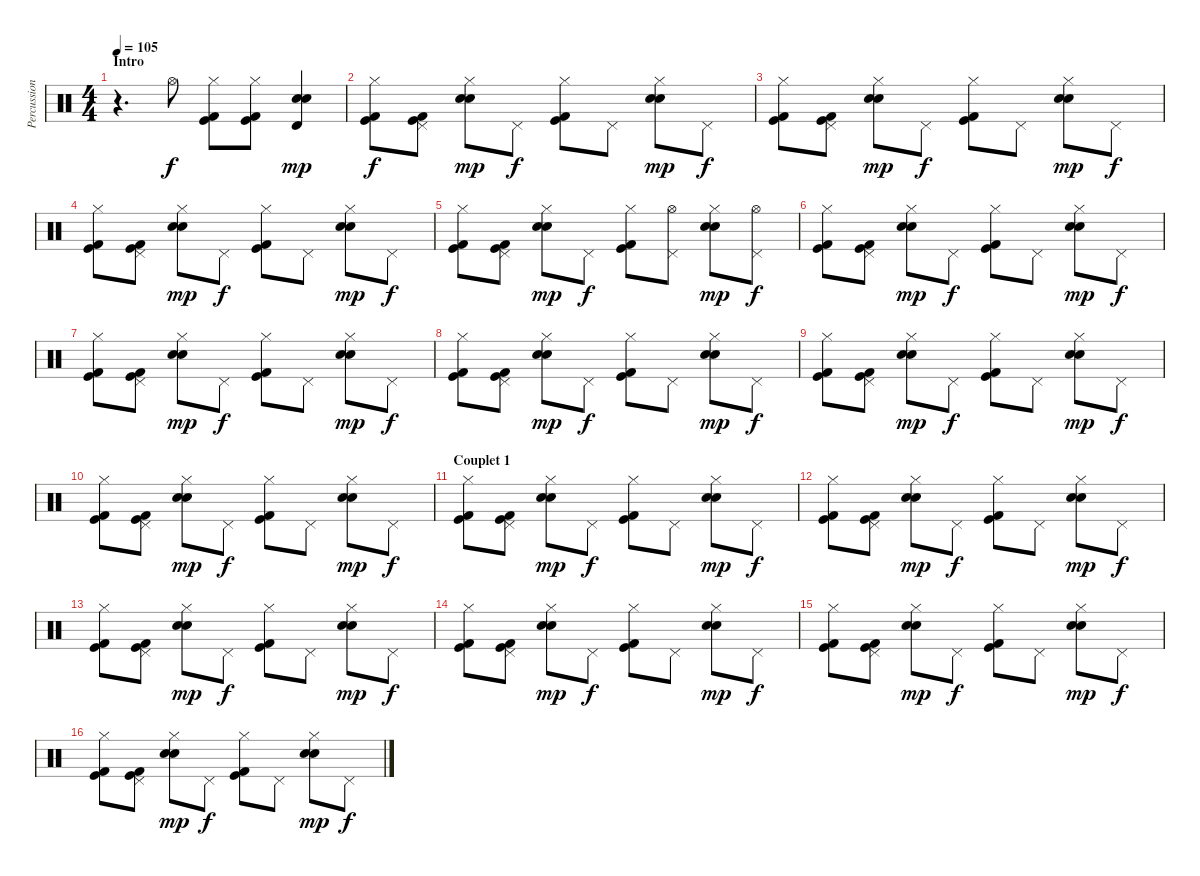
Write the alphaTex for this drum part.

\track ("Percussions" "Percussion") {instrument percussion}
\staff {score}
\articulation defaults
\ts (4 4)
\section ("" "Intro")
\tempo 105
\clef neutral
\ks c
r.4{d dy f} "Hi-Hat (open)".8 ("Hi-Hat (closed)" "Kick (hit) 2" "Kick (hit)").8 ("Hi-Hat (closed)" "Kick (hit) 2" "Kick (hit)").8 ("Electric Snare (hit)" "Snare (hit) 2" "Timbale high (hit)").4{dy mp} |
("Hi-Hat (closed)" "Kick (hit) 2" "Kick (hit)").8{dy f} ("Pedal Hi-Hat (hit)" "Kick (hit) 2" "Kick (hit)").8 ("Hi-Hat (closed)" "Electric Snare (hit)" "Snare (hit) 2").8{dy mp} "Pedal Hi-Hat (hit)".8{dy f} ("Hi-Hat (closed)" "Kick (hit) 2" "Kick (hit)").8 "Pedal Hi-Hat (hit)".8 ("Hi-Hat (closed)" "Electric Snare (hit)" "Snare (hit) 2").8{dy mp} "Pedal Hi-Hat (hit)".8{dy f} |
("Hi-Hat (closed)" "Kick (hit) 2" "Kick (hit)").8 ("Pedal Hi-Hat (hit)" "Kick (hit) 2" "Kick (hit)").8 ("Hi-Hat (closed)" "Electric Snare (hit)" "Snare (hit) 2").8{dy mp} "Pedal Hi-Hat (hit)".8{dy f} ("Hi-Hat (closed)" "Kick (hit) 2" "Kick (hit)").8 "Pedal Hi-Hat (hit)".8 ("Hi-Hat (closed)" "Electric Snare (hit)" "Snare (hit) 2").8{dy mp} "Pedal Hi-Hat (hit)".8{dy f} |
("Hi-Hat (closed)" "Kick (hit) 2" "Kick (hit)").8 ("Pedal Hi-Hat (hit)" "Kick (hit) 2" "Kick (hit)").8 ("Hi-Hat (closed)" "Electric Snare (hit)" "Snare (hit) 2").8{dy mp} "Pedal Hi-Hat (hit)".8{dy f} ("Hi-Hat (closed)" "Kick (hit) 2" "Kick (hit)").8 "Pedal Hi-Hat (hit)".8 ("Hi-Hat (closed)" "Electric Snare (hit)" "Snare (hit) 2").8{dy mp} "Pedal Hi-Hat (hit)".8{dy f} |
("Hi-Hat (closed)" "Kick (hit) 2" "Kick (hit)").8 ("Pedal Hi-Hat (hit)" "Kick (hit) 2" "Kick (hit)").8 ("Hi-Hat (closed)" "Electric Snare (hit)" "Snare (hit) 2").8{dy mp} "Pedal Hi-Hat (hit)".8{dy f} ("Hi-Hat (closed)" "Kick (hit) 2" "Kick (hit)").8 ("Pedal Hi-Hat (hit)" "Hi-Hat (open)").8 ("Hi-Hat (closed)" "Electric Snare (hit)" "Snare (hit) 2").8{dy mp} ("Pedal Hi-Hat (hit)" "Hi-Hat (open)").8{dy f} |
("Hi-Hat (closed)" "Kick (hit) 2" "Kick (hit)").8 ("Pedal Hi-Hat (hit)" "Kick (hit) 2" "Kick (hit)").8 ("Hi-Hat (closed)" "Electric Snare (hit)" "Snare (hit) 2").8{dy mp} "Pedal Hi-Hat (hit)".8{dy f} ("Hi-Hat (closed)" "Kick (hit) 2" "Kick (hit)").8 "Pedal Hi-Hat (hit)".8 ("Hi-Hat (closed)" "Electric Snare (hit)" "Snare (hit) 2").8{dy mp} "Pedal Hi-Hat (hit)".8{dy f} |
("Hi-Hat (closed)" "Kick (hit) 2" "Kick (hit)").8 ("Pedal Hi-Hat (hit)" "Kick (hit) 2" "Kick (hit)").8 ("Hi-Hat (closed)" "Electric Snare (hit)" "Snare (hit) 2").8{dy mp} "Pedal Hi-Hat (hit)".8{dy f} ("Hi-Hat (closed)" "Kick (hit) 2" "Kick (hit)").8 "Pedal Hi-Hat (hit)".8 ("Hi-Hat (closed)" "Electric Snare (hit)" "Snare (hit) 2").8{dy mp} "Pedal Hi-Hat (hit)".8{dy f} |
("Hi-Hat (closed)" "Kick (hit) 2" "Kick (hit)").8 ("Pedal Hi-Hat (hit)" "Kick (hit) 2" "Kick (hit)").8 ("Hi-Hat (closed)" "Electric Snare (hit)" "Snare (hit) 2").8{dy mp} "Pedal Hi-Hat (hit)".8{dy f} ("Hi-Hat (closed)" "Kick (hit) 2" "Kick (hit)").8 "Pedal Hi-Hat (hit)".8 ("Hi-Hat (closed)" "Electric Snare (hit)" "Snare (hit) 2").8{dy mp} "Pedal Hi-Hat (hit)".8{dy f} |
("Hi-Hat (closed)" "Kick (hit) 2" "Kick (hit)").8 ("Pedal Hi-Hat (hit)" "Kick (hit) 2" "Kick (hit)").8 ("Hi-Hat (closed)" "Electric Snare (hit)" "Snare (hit) 2").8{dy mp} "Pedal Hi-Hat (hit)".8{dy f} ("Hi-Hat (closed)" "Kick (hit) 2" "Kick (hit)").8 "Pedal Hi-Hat (hit)".8 ("Hi-Hat (closed)" "Electric Snare (hit)" "Snare (hit) 2").8{dy mp} "Pedal Hi-Hat (hit)".8{dy f} |
("Hi-Hat (closed)" "Kick (hit) 2" "Kick (hit)").8 ("Pedal Hi-Hat (hit)" "Kick (hit) 2" "Kick (hit)").8 ("Hi-Hat (closed)" "Electric Snare (hit)" "Snare (hit) 2").8{dy mp} "Pedal Hi-Hat (hit)".8{dy f} ("Hi-Hat (closed)" "Kick (hit) 2" "Kick (hit)").8 "Pedal Hi-Hat (hit)".8 ("Hi-Hat (closed)" "Electric Snare (hit)" "Snare (hit) 2").8{dy mp} "Pedal Hi-Hat (hit)".8{dy f} |
\section ("" "Couplet 1")
("Hi-Hat (closed)" "Kick (hit) 2" "Kick (hit)").8 ("Pedal Hi-Hat (hit)" "Kick (hit) 2" "Kick (hit)").8 ("Hi-Hat (closed)" "Electric Snare (hit)" "Snare (hit) 2").8{dy mp} "Pedal Hi-Hat (hit)".8{dy f} ("Hi-Hat (closed)" "Kick (hit) 2" "Kick (hit)").8 "Pedal Hi-Hat (hit)".8 ("Hi-Hat (closed)" "Electric Snare (hit)" "Snare (hit) 2").8{dy mp} "Pedal Hi-Hat (hit)".8{dy f} |
("Hi-Hat (closed)" "Kick (hit) 2" "Kick (hit)").8 ("Pedal Hi-Hat (hit)" "Kick (hit) 2" "Kick (hit)").8 ("Hi-Hat (closed)" "Electric Snare (hit)" "Snare (hit) 2").8{dy mp} "Pedal Hi-Hat (hit)".8{dy f} ("Hi-Hat (closed)" "Kick (hit) 2" "Kick (hit)").8 "Pedal Hi-Hat (hit)".8 ("Hi-Hat (closed)" "Electric Snare (hit)" "Snare (hit) 2").8{dy mp} "Pedal Hi-Hat (hit)".8{dy f} |
("Hi-Hat (closed)" "Kick (hit) 2" "Kick (hit)").8 ("Pedal Hi-Hat (hit)" "Kick (hit) 2" "Kick (hit)").8 ("Hi-Hat (closed)" "Electric Snare (hit)" "Snare (hit) 2").8{dy mp} "Pedal Hi-Hat (hit)".8{dy f} ("Hi-Hat (closed)" "Kick (hit) 2" "Kick (hit)").8 "Pedal Hi-Hat (hit)".8 ("Hi-Hat (closed)" "Electric Snare (hit)" "Snare (hit) 2").8{dy mp} "Pedal Hi-Hat (hit)".8{dy f} |
("Hi-Hat (closed)" "Kick (hit) 2" "Kick (hit)").8 ("Pedal Hi-Hat (hit)" "Kick (hit) 2" "Kick (hit)").8 ("Hi-Hat (closed)" "Electric Snare (hit)" "Snare (hit) 2").8{dy mp} "Pedal Hi-Hat (hit)".8{dy f} ("Hi-Hat (closed)" "Kick (hit) 2" "Kick (hit)").8 "Pedal Hi-Hat (hit)".8 ("Hi-Hat (closed)" "Electric Snare (hit)" "Snare (hit) 2").8{dy mp} "Pedal Hi-Hat (hit)".8{dy f} |
("Hi-Hat (closed)" "Kick (hit) 2" "Kick (hit)").8 ("Pedal Hi-Hat (hit)" "Kick (hit) 2" "Kick (hit)").8 ("Hi-Hat (closed)" "Electric Snare (hit)" "Snare (hit) 2").8{dy mp} "Pedal Hi-Hat (hit)".8{dy f} ("Hi-Hat (closed)" "Kick (hit) 2" "Kick (hit)").8 "Pedal Hi-Hat (hit)".8 ("Hi-Hat (closed)" "Electric Snare (hit)" "Snare (hit) 2").8{dy mp} "Pedal Hi-Hat (hit)".8{dy f} |
("Hi-Hat (closed)" "Kick (hit) 2" "Kick (hit)").8 ("Pedal Hi-Hat (hit)" "Kick (hit) 2" "Kick (hit)").8 ("Hi-Hat (closed)" "Electric Snare (hit)" "Snare (hit) 2").8{dy mp} "Pedal Hi-Hat (hit)".8{dy f} ("Hi-Hat (closed)" "Kick (hit) 2" "Kick (hit)").8 "Pedal Hi-Hat (hit)".8 ("Hi-Hat (closed)" "Electric Snare (hit)" "Snare (hit) 2").8{dy mp} "Pedal Hi-Hat (hit)".8{dy f}
